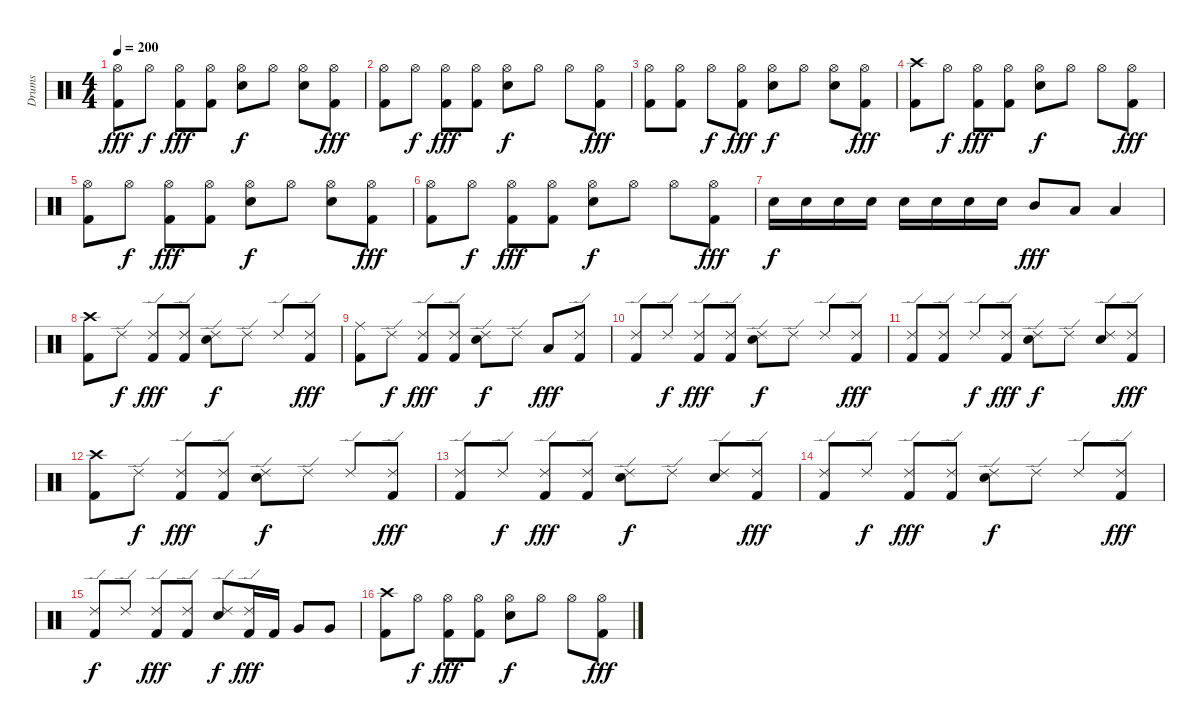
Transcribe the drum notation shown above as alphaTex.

\track ("Drums" "Drums") {instrument percussion}
\staff {score}
\articulation defaults
\ts (4 4)
\tempo 200
\clef neutral
\ks c
("Hi-Hat (open)" "Kick (hit) 2").8{dy fff} "Hi-Hat (open)".8{dy f} ("Hi-Hat (open)" "Kick (hit) 2").8{dy fff} ("Hi-Hat (open)" "Kick (hit) 2").8 ("Hi-Hat (open)" "Electric Snare (hit)").8{dy f} "Hi-Hat (open)".8 ("Hi-Hat (open)" "Electric Snare (hit)").8 ("Hi-Hat (open)" "Kick (hit) 2").8{dy fff} |
("Hi-Hat (open)" "Kick (hit) 2").8 "Hi-Hat (open)".8{dy f} ("Hi-Hat (open)" "Kick (hit) 2").8{dy fff} ("Hi-Hat (open)" "Kick (hit) 2").8 ("Hi-Hat (open)" "Electric Snare (hit)").8{dy f} "Hi-Hat (open)".8 "Hi-Hat (open)".8 ("Hi-Hat (open)" "Kick (hit) 2").8{dy fff} |
("Hi-Hat (open)" "Kick (hit) 2").8 ("Hi-Hat (open)" "Kick (hit) 2").8 "Hi-Hat (open)".8{dy f} ("Hi-Hat (open)" "Kick (hit) 2").8{dy fff} ("Hi-Hat (open)" "Electric Snare (hit)").8{dy f} "Hi-Hat (open)".8 ("Hi-Hat (open)" "Electric Snare (hit)").8 ("Hi-Hat (open)" "Kick (hit) 2").8{dy fff} |
("Crash high (hit)" "Kick (hit) 2").8 "Hi-Hat (open)".8{dy f} ("Hi-Hat (open)" "Kick (hit) 2").8{dy fff} ("Hi-Hat (open)" "Kick (hit) 2").8 ("Hi-Hat (open)" "Electric Snare (hit)").8{dy f} "Hi-Hat (open)".8 "Hi-Hat (open)".8 ("Hi-Hat (open)" "Kick (hit) 2").8{dy fff} |
("Hi-Hat (open)" "Kick (hit) 2").8 "Hi-Hat (open)".8{dy f} ("Hi-Hat (open)" "Kick (hit) 2").8{dy fff} ("Hi-Hat (open)" "Kick (hit) 2").8 ("Hi-Hat (open)" "Electric Snare (hit)").8{dy f} "Hi-Hat (open)".8 ("Hi-Hat (open)" "Electric Snare (hit)").8 ("Hi-Hat (open)" "Kick (hit) 2").8{dy fff} |
("Hi-Hat (open)" "Kick (hit) 2").8 "Hi-Hat (open)".8{dy f} ("Hi-Hat (open)" "Kick (hit) 2").8{dy fff} ("Hi-Hat (open)" "Kick (hit) 2").8 ("Hi-Hat (open)" "Electric Snare (hit)").8{dy f} "Hi-Hat (open)".8 "Hi-Hat (open)".8 ("Hi-Hat (open)" "Kick (hit) 2").8{dy fff} |
"Electric Snare (hit)".16{dy f} "Electric Snare (hit)".16 "Electric Snare (hit)".16 "Electric Snare (hit)".16 "Electric Snare (hit)".16 "Electric Snare (hit)".16 "Electric Snare (hit)".16 "Electric Snare (hit)".16 "Mid Tom (hit)".8{dy fff} "Low Tom (hit)".8 "Low Tom (hit)".4 |
("Crash high (hit)" "Kick (hit) 2").8 "Ride (edge) 2".8{dy f} ("Ride (edge) 2" "Kick (hit) 2").8{dy fff} ("Ride (edge) 2" "Kick (hit) 2").8 ("Ride (edge) 2" "Electric Snare (hit)").8{dy f} "Ride (edge) 2".8 "Ride (edge) 2".8 ("Ride (edge) 2" "Kick (hit) 2").8{dy fff} |
("Ride (middle)" "Kick (hit) 2").8 "Ride (edge) 2".8{dy f} ("Ride (edge) 2" "Kick (hit) 2").8{dy fff} ("Ride (edge) 2" "Kick (hit) 2").8 ("Ride (edge) 2" "Electric Snare (hit)").8{dy f} "Ride (edge) 2".8 "Low Tom (hit)".8{dy fff} ("Ride (edge) 2" "Kick (hit) 2").8 |
("Ride (edge) 2" "Kick (hit) 2").8 "Ride (edge) 2".8{dy f} ("Ride (edge) 2" "Kick (hit) 2").8{dy fff} ("Ride (edge) 2" "Kick (hit) 2").8 ("Ride (edge) 2" "Electric Snare (hit)").8{dy f} "Ride (edge) 2".8 "Ride (edge) 2".8 ("Ride (edge) 2" "Kick (hit) 2").8{dy fff} |
("Ride (edge) 2" "Kick (hit) 2").8 ("Ride (edge) 2" "Kick (hit) 2").8 "Ride (edge) 2".8{dy f} ("Ride (edge) 2" "Kick (hit) 2").8{dy fff} ("Ride (edge) 2" "Electric Snare (hit)").8{dy f} "Ride (edge) 2".8 ("Ride (edge) 2" "Electric Snare (hit)").8 ("Ride (edge) 2" "Kick (hit) 2").8{dy fff} |
("Crash high (hit)" "Kick (hit) 2").8 "Ride (edge) 2".8{dy f} ("Ride (edge) 2" "Kick (hit) 2").8{dy fff} ("Ride (edge) 2" "Kick (hit) 2").8 ("Ride (edge) 2" "Electric Snare (hit)").8{dy f} "Ride (edge) 2".8 "Ride (edge) 2".8 ("Ride (edge) 2" "Kick (hit) 2").8{dy fff} |
("Ride (edge) 2" "Kick (hit) 2").8 "Ride (edge) 2".8{dy f} ("Ride (edge) 2" "Kick (hit) 2").8{dy fff} ("Ride (edge) 2" "Kick (hit) 2").8 ("Ride (edge) 2" "Electric Snare (hit)").8{dy f} "Ride (edge) 2".8 ("Ride (edge) 2" "Electric Snare (hit)").8 ("Ride (edge) 2" "Kick (hit) 2").8{dy fff} |
("Ride (edge) 2" "Kick (hit) 2").8 "Ride (edge) 2".8{dy f} ("Ride (edge) 2" "Kick (hit) 2").8{dy fff} ("Ride (edge) 2" "Kick (hit) 2").8 ("Ride (edge) 2" "Electric Snare (hit)").8{dy f} "Ride (edge) 2".8 "Ride (edge) 2".8 ("Ride (edge) 2" "Kick (hit) 2").8{dy fff} |
("Ride (edge) 2" "Kick (hit) 2").8{dy f} "Ride (edge) 2".8 ("Ride (edge) 2" "Kick (hit) 2").8{dy fff} ("Ride (edge) 2" "Kick (hit) 2").8 ("Ride (edge) 2" "Electric Snare (hit)").8{dy f} ("Ride (edge) 2" "Kick (hit) 2").16{dy fff} "Kick (hit) 2".16 "Very Low Tom (hit)".8 "Very Low Tom (hit)".8 |
("Crash high (hit)" "Kick (hit) 2").8 "Hi-Hat (open)".8{dy f} ("Hi-Hat (open)" "Kick (hit) 2").8{dy fff} ("Hi-Hat (open)" "Kick (hit) 2").8 ("Hi-Hat (open)" "Electric Snare (hit)").8{dy f} "Hi-Hat (open)".8 "Hi-Hat (open)".8 ("Hi-Hat (open)" "Kick (hit) 2").8{dy fff}
